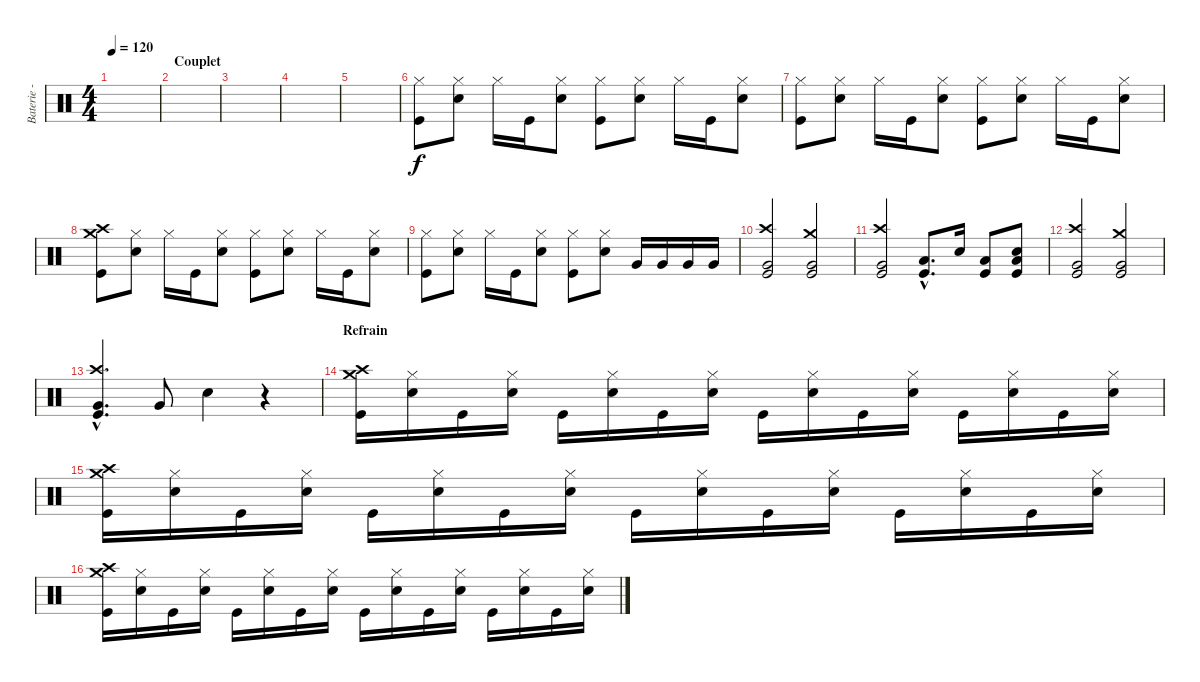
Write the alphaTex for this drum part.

\track ("Baterie - Nounours" "Baterie - ") {instrument percussion}
\staff {score}
\articulation defaults
\ts (4 4)
\tempo 120
\clef neutral
\ks c
|
\section ("" "Couplet")
|
|
|
|
("Hi-Hat (closed)" "Kick (hit)").8 ("Hi-Hat (closed)" "Electric Snare (hit)").8 "Hi-Hat (closed)".16 "Kick (hit)".16 ("Hi-Hat (closed)" "Electric Snare (hit)").8 ("Hi-Hat (closed)" "Kick (hit)").8 ("Hi-Hat (closed)" "Electric Snare (hit)").8 "Hi-Hat (closed)".16 "Kick (hit)".16 ("Hi-Hat (closed)" "Electric Snare (hit)").8 |
("Hi-Hat (closed)" "Kick (hit)").8 ("Hi-Hat (closed)" "Electric Snare (hit)").8 "Hi-Hat (closed)".16 "Kick (hit)".16 ("Hi-Hat (closed)" "Electric Snare (hit)").8 ("Hi-Hat (closed)" "Kick (hit)").8 ("Hi-Hat (closed)" "Electric Snare (hit)").8 "Hi-Hat (closed)".16 "Kick (hit)".16 ("Hi-Hat (closed)" "Electric Snare (hit)").8 |
("Crash high (hit)" "Crash medium (hit)" "Kick (hit)").8 ("Hi-Hat (closed)" "Electric Snare (hit)").8 "Hi-Hat (closed)".16 "Kick (hit)".16 ("Hi-Hat (closed)" "Electric Snare (hit)").8 ("Hi-Hat (closed)" "Kick (hit)").8 ("Hi-Hat (closed)" "Electric Snare (hit)").8 "Hi-Hat (closed)".16 "Kick (hit)".16 ("Hi-Hat (closed)" "Electric Snare (hit)").8 |
("Hi-Hat (closed)" "Kick (hit)").8 ("Hi-Hat (closed)" "Electric Snare (hit)").8 "Hi-Hat (closed)".16 "Kick (hit)".16 ("Hi-Hat (closed)" "Electric Snare (hit)").8 ("Hi-Hat (closed)" "Kick (hit)").8 ("Hi-Hat (closed)" "Electric Snare (hit)").8 "Very Low Tom (hit)".16 "Very Low Tom (hit)".16 "Very Low Tom (hit)".16 "Very Low Tom (hit)".16 |
("Crash high (hit)" "Very Low Tom (hit)" "Kick (hit)").2 ("Crash medium (hit)" "Very Low Tom (hit)" "Kick (hit)").2 |
("Crash high (hit)" "Very Low Tom (hit)" "Kick (hit)").2 ("Low Floor Tom (hit)"{hac} "Kick (hit)"{hac}).8{d} "Electric Snare (hit)".16 ("Low Floor Tom (hit)" "Kick (hit)").8 ("Electric Snare (hit)" "Low Floor Tom (hit)" "Kick (hit)").8 |
("Crash high (hit)" "Very Low Tom (hit)" "Kick (hit)").2 ("Crash medium (hit)" "Very Low Tom (hit)" "Kick (hit)").2 |
("Crash high (hit)"{hac} "Very Low Tom (hit)"{hac} "Kick (hit)"{hac}).4{d} "Very Low Tom (hit)".8 "Electric Snare (hit)".4 r.4 |
\section ("" "Refrain")
("Crash medium (hit)" "Crash high (hit)" "Kick (hit)").16 ("Hi-Hat (closed)" "Electric Snare (hit)").16 "Kick (hit)".16 ("Hi-Hat (closed)" "Electric Snare (hit)").16 "Kick (hit)".16 ("Hi-Hat (closed)" "Electric Snare (hit)").16 "Kick (hit)".16 ("Hi-Hat (closed)" "Electric Snare (hit)").16 "Kick (hit)".16 ("Hi-Hat (closed)" "Electric Snare (hit)").16 "Kick (hit)".16 ("Hi-Hat (closed)" "Electric Snare (hit)").16 "Kick (hit)".16 ("Hi-Hat (closed)" "Electric Snare (hit)").16 "Kick (hit)".16 ("Hi-Hat (closed)" "Electric Snare (hit)").16 |
("Crash medium (hit)" "Crash high (hit)" "Kick (hit)").16 ("Hi-Hat (closed)" "Electric Snare (hit)").16 "Kick (hit)".16 ("Hi-Hat (closed)" "Electric Snare (hit)").16 "Kick (hit)".16 ("Hi-Hat (closed)" "Electric Snare (hit)").16 "Kick (hit)".16 ("Hi-Hat (closed)" "Electric Snare (hit)").16 "Kick (hit)".16 ("Hi-Hat (closed)" "Electric Snare (hit)").16 "Kick (hit)".16 ("Hi-Hat (closed)" "Electric Snare (hit)").16 "Kick (hit)".16 ("Hi-Hat (closed)" "Electric Snare (hit)").16 "Kick (hit)".16 ("Hi-Hat (closed)" "Electric Snare (hit)").16 |
("Crash medium (hit)" "Crash high (hit)" "Kick (hit)").16 ("Hi-Hat (closed)" "Electric Snare (hit)").16 "Kick (hit)".16 ("Hi-Hat (closed)" "Electric Snare (hit)").16 "Kick (hit)".16 ("Hi-Hat (closed)" "Electric Snare (hit)").16 "Kick (hit)".16 ("Hi-Hat (closed)" "Electric Snare (hit)").16 "Kick (hit)".16 ("Hi-Hat (closed)" "Electric Snare (hit)").16 "Kick (hit)".16 ("Hi-Hat (closed)" "Electric Snare (hit)").16 "Kick (hit)".16 ("Hi-Hat (closed)" "Electric Snare (hit)").16 "Kick (hit)".16 ("Hi-Hat (closed)" "Electric Snare (hit)").16
